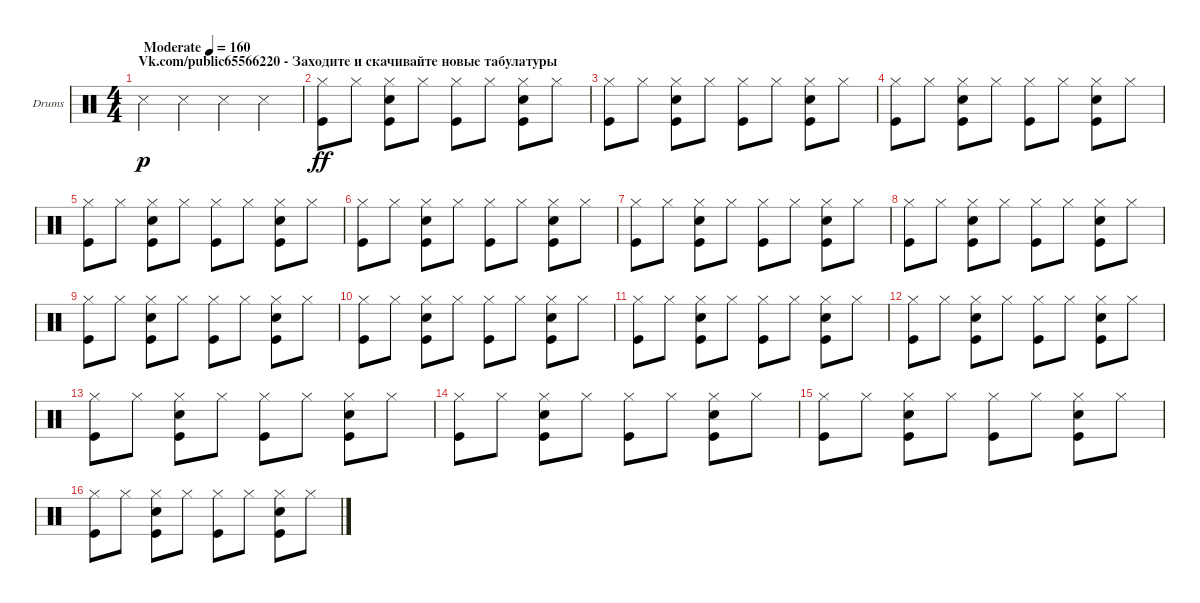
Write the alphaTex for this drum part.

\bracketExtendMode groupsimilarinstruments
\firstSystemTrackNameOrientation horizontal
\otherSystemsTrackNameOrientation horizontal
\track ("Ударные" "Drums") {instrument percussion}
\staff {score}
\articulation defaults
\ts (4 4)
\beaming (8 2 2 2 2)
\section ("" "Vk.com/public65566220 - Заходите и скачивайте новые табулатуры")
\tempo (160 "Moderate")
\clef neutral
\ks c "Snare (side stick) 3".4{dy p} "Snare (side stick) 3".4 "Snare (side stick) 3".4 "Snare (side stick) 3".4
|
("Hi-Hat (closed)" "Kick (hit)").8{dy ff} "Hi-Hat (closed)".8 ("Hi-Hat (closed)" "Snare (hit) 2" "Kick (hit)").8 "Hi-Hat (closed)".8 ("Hi-Hat (closed)" "Kick (hit)").8 "Hi-Hat (closed)".8 ("Hi-Hat (closed)" "Snare (hit) 2" "Kick (hit)").8 "Hi-Hat (closed)".8 |
("Hi-Hat (closed)" "Kick (hit)").8 "Hi-Hat (closed)".8 ("Hi-Hat (closed)" "Snare (hit) 2" "Kick (hit)").8 "Hi-Hat (closed)".8 ("Hi-Hat (closed)" "Kick (hit)").8 "Hi-Hat (closed)".8 ("Hi-Hat (closed)" "Snare (hit) 2" "Kick (hit)").8 "Hi-Hat (closed)".8 |
("Hi-Hat (closed)" "Kick (hit)").8 "Hi-Hat (closed)".8 ("Hi-Hat (closed)" "Snare (hit) 2" "Kick (hit)").8 "Hi-Hat (closed)".8 ("Hi-Hat (closed)" "Kick (hit)").8 "Hi-Hat (closed)".8 ("Hi-Hat (closed)" "Snare (hit) 2" "Kick (hit)").8 "Hi-Hat (closed)".8 |
("Hi-Hat (closed)" "Kick (hit)").8 "Hi-Hat (closed)".8 ("Hi-Hat (closed)" "Snare (hit) 2" "Kick (hit)").8 "Hi-Hat (closed)".8 ("Hi-Hat (closed)" "Kick (hit)").8 "Hi-Hat (closed)".8 ("Hi-Hat (closed)" "Snare (hit) 2" "Kick (hit)").8 "Hi-Hat (closed)".8 |
("Hi-Hat (closed)" "Kick (hit)").8 "Hi-Hat (closed)".8 ("Hi-Hat (closed)" "Snare (hit) 2" "Kick (hit)").8 "Hi-Hat (closed)".8 ("Hi-Hat (closed)" "Kick (hit)").8 "Hi-Hat (closed)".8 ("Hi-Hat (closed)" "Snare (hit) 2" "Kick (hit)").8 "Hi-Hat (closed)".8 |
("Hi-Hat (closed)" "Kick (hit)").8 "Hi-Hat (closed)".8 ("Hi-Hat (closed)" "Snare (hit) 2" "Kick (hit)").8 "Hi-Hat (closed)".8 ("Hi-Hat (closed)" "Kick (hit)").8 "Hi-Hat (closed)".8 ("Hi-Hat (closed)" "Snare (hit) 2" "Kick (hit)").8 "Hi-Hat (closed)".8 |
("Hi-Hat (closed)" "Kick (hit)").8 "Hi-Hat (closed)".8 ("Hi-Hat (closed)" "Snare (hit) 2" "Kick (hit)").8 "Hi-Hat (closed)".8 ("Hi-Hat (closed)" "Kick (hit)").8 "Hi-Hat (closed)".8 ("Hi-Hat (closed)" "Snare (hit) 2" "Kick (hit)").8 "Hi-Hat (closed)".8 |
("Hi-Hat (closed)" "Kick (hit)").8 "Hi-Hat (closed)".8 ("Hi-Hat (closed)" "Snare (hit) 2" "Kick (hit)").8 "Hi-Hat (closed)".8 ("Hi-Hat (closed)" "Kick (hit)").8 "Hi-Hat (closed)".8 ("Hi-Hat (closed)" "Snare (hit) 2" "Kick (hit)").8 "Hi-Hat (closed)".8 |
("Hi-Hat (closed)" "Kick (hit)").8 "Hi-Hat (closed)".8 ("Hi-Hat (closed)" "Snare (hit) 2" "Kick (hit)").8 "Hi-Hat (closed)".8 ("Hi-Hat (closed)" "Kick (hit)").8 "Hi-Hat (closed)".8 ("Hi-Hat (closed)" "Snare (hit) 2" "Kick (hit)").8 "Hi-Hat (closed)".8 |
("Hi-Hat (closed)" "Kick (hit)").8 "Hi-Hat (closed)".8 ("Hi-Hat (closed)" "Snare (hit) 2" "Kick (hit)").8 "Hi-Hat (closed)".8 ("Hi-Hat (closed)" "Kick (hit)").8 "Hi-Hat (closed)".8 ("Hi-Hat (closed)" "Snare (hit) 2" "Kick (hit)").8 "Hi-Hat (closed)".8 |
("Hi-Hat (closed)" "Kick (hit)").8 "Hi-Hat (closed)".8 ("Hi-Hat (closed)" "Snare (hit) 2" "Kick (hit)").8 "Hi-Hat (closed)".8 ("Hi-Hat (closed)" "Kick (hit)").8 "Hi-Hat (closed)".8 ("Hi-Hat (closed)" "Snare (hit) 2" "Kick (hit)").8 "Hi-Hat (closed)".8 |
("Hi-Hat (closed)" "Kick (hit)").8 "Hi-Hat (closed)".8 ("Hi-Hat (closed)" "Snare (hit) 2" "Kick (hit)").8 "Hi-Hat (closed)".8 ("Hi-Hat (closed)" "Kick (hit)").8 "Hi-Hat (closed)".8 ("Hi-Hat (closed)" "Snare (hit) 2" "Kick (hit)").8 "Hi-Hat (closed)".8 |
("Hi-Hat (closed)" "Kick (hit)").8 "Hi-Hat (closed)".8 ("Hi-Hat (closed)" "Snare (hit) 2" "Kick (hit)").8 "Hi-Hat (closed)".8 ("Hi-Hat (closed)" "Kick (hit)").8 "Hi-Hat (closed)".8 ("Hi-Hat (closed)" "Snare (hit) 2" "Kick (hit)").8 "Hi-Hat (closed)".8 |
("Hi-Hat (closed)" "Kick (hit)").8 "Hi-Hat (closed)".8 ("Hi-Hat (closed)" "Snare (hit) 2" "Kick (hit)").8 "Hi-Hat (closed)".8 ("Hi-Hat (closed)" "Kick (hit)").8 "Hi-Hat (closed)".8 ("Hi-Hat (closed)" "Snare (hit) 2" "Kick (hit)").8 "Hi-Hat (closed)".8 |
("Hi-Hat (closed)" "Kick (hit)").8 "Hi-Hat (closed)".8 ("Hi-Hat (closed)" "Snare (hit) 2" "Kick (hit)").8 "Hi-Hat (closed)".8 ("Hi-Hat (closed)" "Kick (hit)").8 "Hi-Hat (closed)".8 ("Hi-Hat (closed)" "Snare (hit) 2" "Kick (hit)").8 "Hi-Hat (closed)".8
